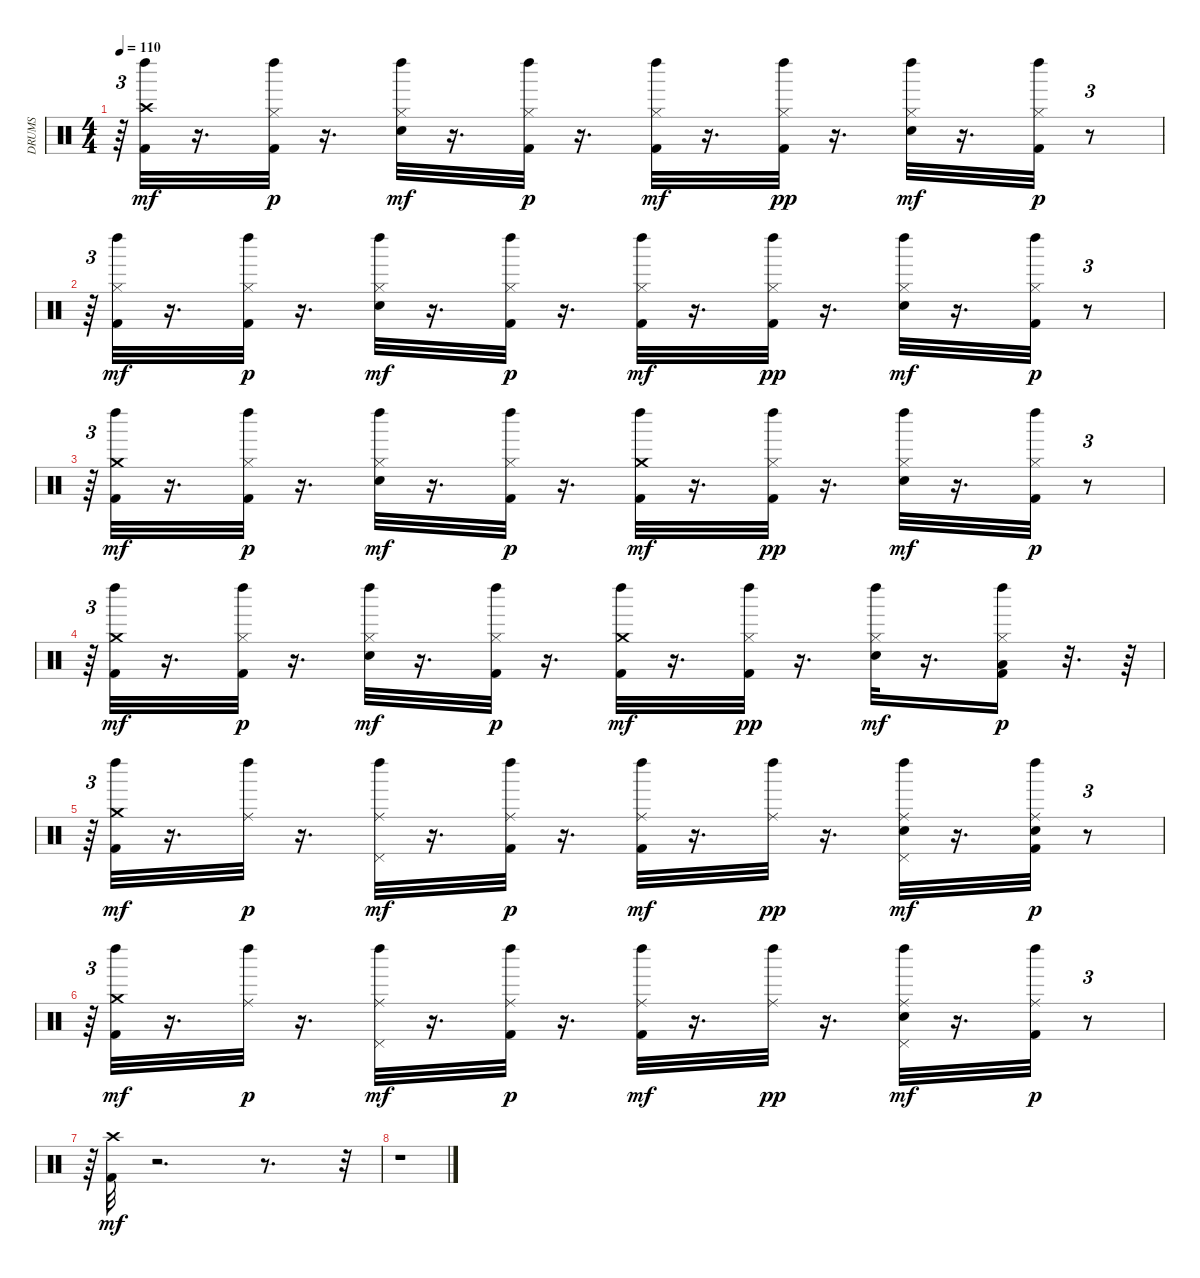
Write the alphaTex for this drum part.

\track ("DRUMS" "DRUMS") {instrument percussion}
\staff {score}
\articulation defaults
\ts (4 4)
\tempo 110
\clef neutral
\ks c
r.64{tu (3 2) dy p} ("Kick (hit) 2" "Crash high (hit)" "Left Maraca (hit)").32{dy mf} r.16{d} ("Kick (hit) 2" "Hi-Hat (closed)" "Left Maraca (hit)").32{dy p} r.16{d} ("Snare (hit) 2" "Hi-Hat (closed)" "Left Maraca (hit)").32{dy mf} r.16{d} ("Kick (hit) 2" "Hi-Hat (closed)" "Left Maraca (hit)").32{dy p} r.16{d} ("Kick (hit) 2" "Hi-Hat (closed)" "Left Maraca (hit)").32{dy mf} r.16{d} ("Kick (hit) 2" "Hi-Hat (closed)" "Left Maraca (hit)").32{dy pp} r.16{d} ("Snare (hit) 2" "Hi-Hat (closed)" "Left Maraca (hit)").32{dy mf} r.16{d} ("Kick (hit) 2" "Hi-Hat (closed)" "Left Maraca (hit)").32{dy p} r.8{tu (3 2)} |
r.64{tu (3 2)} ("Kick (hit) 2" "Hi-Hat (closed)" "Left Maraca (hit)").32{dy mf} r.16{d} ("Kick (hit) 2" "Hi-Hat (closed)" "Left Maraca (hit)").32{dy p} r.16{d} ("Snare (hit) 2" "Hi-Hat (closed)" "Left Maraca (hit)").32{dy mf} r.16{d} ("Kick (hit) 2" "Hi-Hat (closed)" "Left Maraca (hit)").32{dy p} r.16{d} ("Kick (hit) 2" "Hi-Hat (closed)" "Left Maraca (hit)").32{dy mf} r.16{d} ("Kick (hit) 2" "Hi-Hat (closed)" "Left Maraca (hit)").32{dy pp} r.16{d} ("Snare (hit) 2" "Hi-Hat (closed)" "Left Maraca (hit)").32{dy mf} r.16{d} ("Kick (hit) 2" "Hi-Hat (closed)" "Left Maraca (hit)").32{dy p} r.8{tu (3 2)} |
r.64{tu (3 2)} ("Kick (hit) 2" "Crash medium (hit)" "Left Maraca (hit)").32{dy mf} r.16{d} ("Kick (hit) 2" "Hi-Hat (closed)" "Left Maraca (hit)").32{dy p} r.16{d} ("Snare (hit) 2" "Hi-Hat (closed)" "Left Maraca (hit)").32{dy mf} r.16{d} ("Kick (hit) 2" "Hi-Hat (closed)" "Left Maraca (hit)").32{dy p} r.16{d} ("Kick (hit) 2" "Crash medium (hit)" "Left Maraca (hit)").32{dy mf} r.16{d} ("Kick (hit) 2" "Hi-Hat (closed)" "Left Maraca (hit)").32{dy pp} r.16{d} ("Snare (hit) 2" "Hi-Hat (closed)" "Left Maraca (hit)").32{dy mf} r.16{d} ("Kick (hit) 2" "Hi-Hat (closed)" "Left Maraca (hit)").32{dy p} r.8{tu (3 2)} |
r.64{tu (3 2)} ("Kick (hit) 2" "Crash medium (hit)" "Left Maraca (hit)").32{dy mf} r.16{d} ("Kick (hit) 2" "Hi-Hat (closed)" "Left Maraca (hit)").32{dy p} r.16{d} ("Snare (hit) 2" "Hi-Hat (closed)" "Left Maraca (hit)").32{dy mf} r.16{d} ("Kick (hit) 2" "Hi-Hat (closed)" "Left Maraca (hit)").32{dy p} r.16{d} ("Kick (hit) 2" "Crash medium (hit)" "Left Maraca (hit)").32{dy mf} r.16{d} ("Kick (hit) 2" "Hi-Hat (closed)" "Left Maraca (hit)").32{dy pp} r.16{d} ("Snare (hit) 2" "Hi-Hat (closed)" "Left Maraca (hit)").32{dy mf} r.16{d} ("Kick (hit) 2" "Hi-Hat (closed)" "Low Tom (hit)" "Left Maraca (hit)").16{dy p} r.32{d} r.64 |
r.64{tu (3 2)} ("Kick (hit) 2" "Crash medium (hit)" "Left Maraca (hit)").32{dy mf} r.16{d} ("Ride (middle)" "Left Maraca (hit)").32{dy p} r.16{d} ("Pedal Hi-Hat (hit)" "Ride (middle)" "Left Maraca (hit)").32{dy mf} r.16{d} ("Kick (hit) 2" "Ride (middle)" "Left Maraca (hit)").32{dy p} r.16{d} ("Kick (hit) 2" "Ride (middle)" "Left Maraca (hit)").32{dy mf} r.16{d} ("Ride (middle)" "Left Maraca (hit)").32{dy pp} r.16{d} ("Snare (hit) 2" "Pedal Hi-Hat (hit)" "Ride (middle)" "Left Maraca (hit)").32{dy mf} r.16{d} ("Kick (hit) 2" "Snare (hit) 2" "Ride (middle)" "Left Maraca (hit)").32{dy p} r.8{tu (3 2)} |
r.64{tu (3 2)} ("Kick (hit) 2" "Crash medium (hit)" "Left Maraca (hit)").32{dy mf} r.16{d} ("Ride (middle)" "Left Maraca (hit)").32{dy p} r.16{d} ("Pedal Hi-Hat (hit)" "Ride (middle)" "Left Maraca (hit)").32{dy mf} r.16{d} ("Kick (hit) 2" "Ride (middle)" "Left Maraca (hit)").32{dy p} r.16{d} ("Kick (hit) 2" "Ride (middle)" "Left Maraca (hit)").32{dy mf} r.16{d} ("Ride (middle)" "Left Maraca (hit)").32{dy pp} r.16{d} ("Snare (hit) 2" "Pedal Hi-Hat (hit)" "Ride (middle)" "Left Maraca (hit)").32{dy mf} r.16{d} ("Kick (hit) 2" "Ride (middle)" "Left Maraca (hit)").32{dy p} r.8{tu (3 2)} |
r.64{tu (3 2)} ("Kick (hit) 2" "Crash high (hit)").32{dy mf} r.2{d} r.8{d} r.32{tu (3 2)} |
r.1
